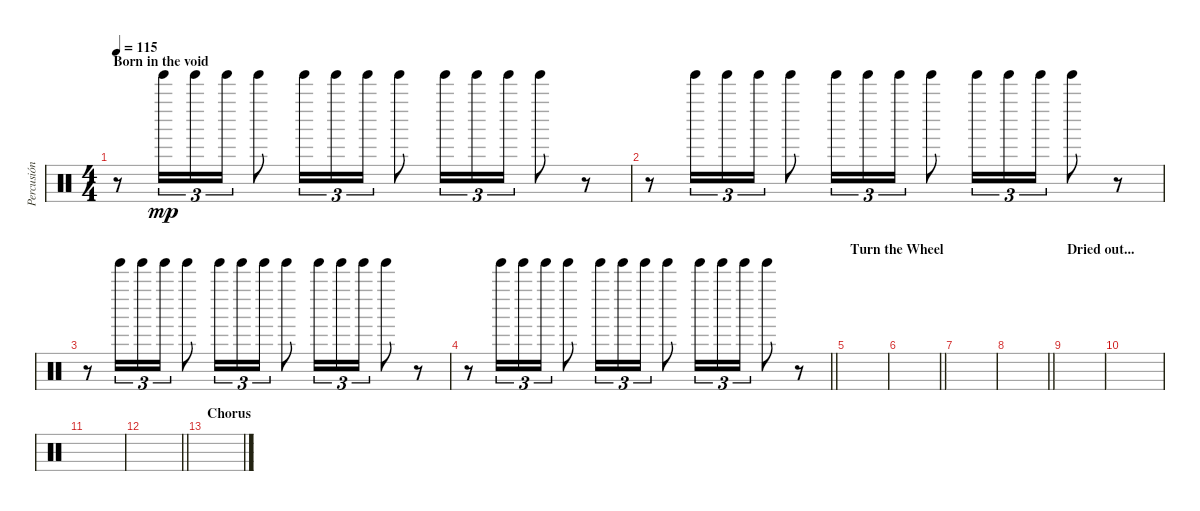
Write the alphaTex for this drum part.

\track ("Percusión" "Percusión") {instrument percussion}
\staff {score}
\articulation defaults
\ts (4 4)
\section ("" "Born in the void")
\tempo 115
\clef neutral
\ks c
r.8{dy mp} "Tinkle Bell (hit)".16{tu (3 2)} "Tinkle Bell (hit)".16{tu (3 2)} "Tinkle Bell (hit)".16{tu (3 2)} "Tinkle Bell (hit)".8 "Tinkle Bell (hit)".16{tu (3 2)} "Tinkle Bell (hit)".16{tu (3 2)} "Tinkle Bell (hit)".16{tu (3 2)} "Tinkle Bell (hit)".8 "Tinkle Bell (hit)".16{tu (3 2)} "Tinkle Bell (hit)".16{tu (3 2)} "Tinkle Bell (hit)".16{tu (3 2)} "Tinkle Bell (hit)".8 r.8 |
r.8 "Tinkle Bell (hit)".16{tu (3 2)} "Tinkle Bell (hit)".16{tu (3 2)} "Tinkle Bell (hit)".16{tu (3 2)} "Tinkle Bell (hit)".8 "Tinkle Bell (hit)".16{tu (3 2)} "Tinkle Bell (hit)".16{tu (3 2)} "Tinkle Bell (hit)".16{tu (3 2)} "Tinkle Bell (hit)".8 "Tinkle Bell (hit)".16{tu (3 2)} "Tinkle Bell (hit)".16{tu (3 2)} "Tinkle Bell (hit)".16{tu (3 2)} "Tinkle Bell (hit)".8 r.8 |
r.8 "Tinkle Bell (hit)".16{tu (3 2)} "Tinkle Bell (hit)".16{tu (3 2)} "Tinkle Bell (hit)".16{tu (3 2)} "Tinkle Bell (hit)".8 "Tinkle Bell (hit)".16{tu (3 2)} "Tinkle Bell (hit)".16{tu (3 2)} "Tinkle Bell (hit)".16{tu (3 2)} "Tinkle Bell (hit)".8 "Tinkle Bell (hit)".16{tu (3 2)} "Tinkle Bell (hit)".16{tu (3 2)} "Tinkle Bell (hit)".16{tu (3 2)} "Tinkle Bell (hit)".8 r.8 |
\barLineRight lightlight
r.8 "Tinkle Bell (hit)".16{tu (3 2)} "Tinkle Bell (hit)".16{tu (3 2)} "Tinkle Bell (hit)".16{tu (3 2)} "Tinkle Bell (hit)".8 "Tinkle Bell (hit)".16{tu (3 2)} "Tinkle Bell (hit)".16{tu (3 2)} "Tinkle Bell (hit)".16{tu (3 2)} "Tinkle Bell (hit)".8 "Tinkle Bell (hit)".16{tu (3 2)} "Tinkle Bell (hit)".16{tu (3 2)} "Tinkle Bell (hit)".16{tu (3 2)} "Tinkle Bell (hit)".8 r.8 |
\section ("" "Turn the Wheel")
|
\barLineRight lightlight
|
|
\barLineRight lightlight
|
\section ("" "Dried out...")
|
|
|
\barLineRight lightlight
|
\section ("" "Chorus")
